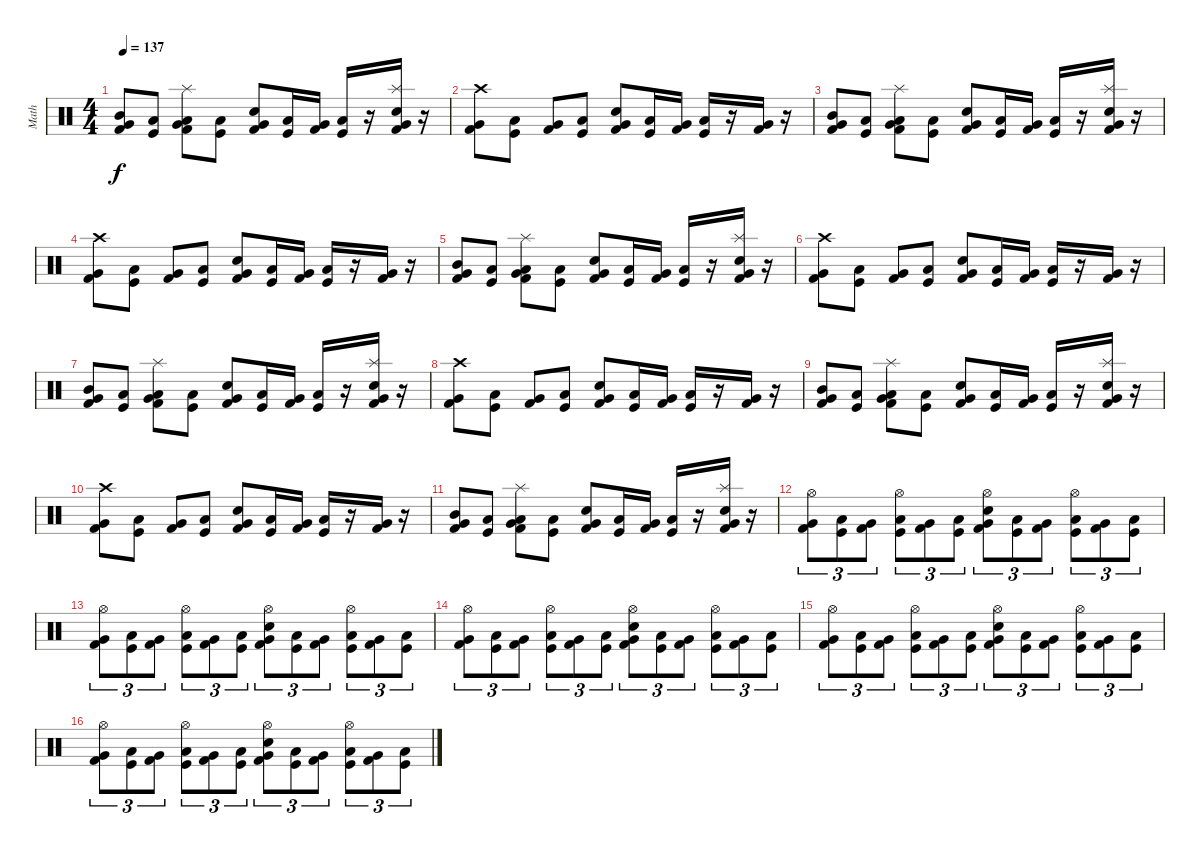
\track ("Math" "Math") {instrument percussion}
\staff {score}
\articulation defaults
\ts (4 4)
\tempo 137
\clef neutral
\ks c
("Mid Tom (hit)" "Very Low Tom (hit)" "Kick (hit) 2").8{dy f} ("Low Tom (hit)" "Kick (hit)").8 ("Low Tom (hit)" "Very Low Tom (hit)" "Kick (hit) 2" "Splash (hit)").8 ("Low Tom (hit)" "Kick (hit)").8 ("Electric Snare (hit)" "Very Low Tom (hit)" "Kick (hit) 2").8 ("Low Tom (hit)" "Kick (hit)").16 ("Very Low Tom (hit)" "Kick (hit) 2").16 ("Low Tom (hit)" "Kick (hit)").16 r.16 ("Electric Snare (hit)" "Very Low Tom (hit)" "Kick (hit) 2" "Splash (hit)").16 r.16 |
("Crash high (hit)" "Very Low Tom (hit)" "Kick (hit) 2").8 ("Low Tom (hit)" "Kick (hit)").8 ("Very Low Tom (hit)" "Kick (hit) 2").8 ("Low Tom (hit)" "Kick (hit)").8 ("Snare (hit) 2" "Very Low Tom (hit)" "Kick (hit) 2").8 ("Low Tom (hit)" "Kick (hit)").16 ("Very Low Tom (hit)" "Kick (hit) 2").16 ("Low Tom (hit)" "Kick (hit)").16 r.16 ("Very Low Tom (hit)" "Kick (hit) 2").16 r.16 |
("Mid Tom (hit)" "Very Low Tom (hit)" "Kick (hit) 2").8 ("Low Tom (hit)" "Kick (hit)").8 ("Low Tom (hit)" "Very Low Tom (hit)" "Kick (hit) 2" "Splash (hit)").8 ("Low Tom (hit)" "Kick (hit)").8 ("Electric Snare (hit)" "Very Low Tom (hit)" "Kick (hit) 2").8 ("Low Tom (hit)" "Kick (hit)").16 ("Very Low Tom (hit)" "Kick (hit) 2").16 ("Low Tom (hit)" "Kick (hit)").16 r.16 ("Electric Snare (hit)" "Very Low Tom (hit)" "Kick (hit) 2" "Splash (hit)").16 r.16 |
("Crash high (hit)" "Very Low Tom (hit)" "Kick (hit) 2").8 ("Low Tom (hit)" "Kick (hit)").8 ("Very Low Tom (hit)" "Kick (hit) 2").8 ("Low Tom (hit)" "Kick (hit)").8 ("Snare (hit) 2" "Very Low Tom (hit)" "Kick (hit) 2").8 ("Low Tom (hit)" "Kick (hit)").16 ("Very Low Tom (hit)" "Kick (hit) 2").16 ("Low Tom (hit)" "Kick (hit)").16 r.16 ("Very Low Tom (hit)" "Kick (hit) 2").16 r.16 |
("Mid Tom (hit)" "Very Low Tom (hit)" "Kick (hit) 2").8 ("Low Tom (hit)" "Kick (hit)").8 ("Low Tom (hit)" "Very Low Tom (hit)" "Kick (hit) 2" "Splash (hit)").8 ("Low Tom (hit)" "Kick (hit)").8 ("Electric Snare (hit)" "Very Low Tom (hit)" "Kick (hit) 2").8 ("Low Tom (hit)" "Kick (hit)").16 ("Very Low Tom (hit)" "Kick (hit) 2").16 ("Low Tom (hit)" "Kick (hit)").16 r.16 ("Electric Snare (hit)" "Very Low Tom (hit)" "Kick (hit) 2" "Splash (hit)").16 r.16 |
("Crash high (hit)" "Very Low Tom (hit)" "Kick (hit) 2").8 ("Low Tom (hit)" "Kick (hit)").8 ("Very Low Tom (hit)" "Kick (hit) 2").8 ("Low Tom (hit)" "Kick (hit)").8 ("Snare (hit) 2" "Very Low Tom (hit)" "Kick (hit) 2").8 ("Low Tom (hit)" "Kick (hit)").16 ("Very Low Tom (hit)" "Kick (hit) 2").16 ("Low Tom (hit)" "Kick (hit)").16 r.16 ("Very Low Tom (hit)" "Kick (hit) 2").16 r.16 |
("Mid Tom (hit)" "Very Low Tom (hit)" "Kick (hit) 2").8 ("Low Tom (hit)" "Kick (hit)").8 ("Low Tom (hit)" "Very Low Tom (hit)" "Kick (hit) 2" "Splash (hit)").8 ("Low Tom (hit)" "Kick (hit)").8 ("Electric Snare (hit)" "Very Low Tom (hit)" "Kick (hit) 2").8 ("Low Tom (hit)" "Kick (hit)").16 ("Very Low Tom (hit)" "Kick (hit) 2").16 ("Low Tom (hit)" "Kick (hit)").16 r.16 ("Electric Snare (hit)" "Very Low Tom (hit)" "Kick (hit) 2" "Splash (hit)").16 r.16 |
("Crash high (hit)" "Very Low Tom (hit)" "Kick (hit) 2").8 ("Low Tom (hit)" "Kick (hit)").8 ("Very Low Tom (hit)" "Kick (hit) 2").8 ("Low Tom (hit)" "Kick (hit)").8 ("Snare (hit) 2" "Very Low Tom (hit)" "Kick (hit) 2").8 ("Low Tom (hit)" "Kick (hit)").16 ("Very Low Tom (hit)" "Kick (hit) 2").16 ("Low Tom (hit)" "Kick (hit)").16 r.16 ("Very Low Tom (hit)" "Kick (hit) 2").16 r.16 |
("Mid Tom (hit)" "Very Low Tom (hit)" "Kick (hit) 2").8 ("Low Tom (hit)" "Kick (hit)").8 ("Low Tom (hit)" "Very Low Tom (hit)" "Kick (hit) 2" "Splash (hit)").8 ("Low Tom (hit)" "Kick (hit)").8 ("Electric Snare (hit)" "Very Low Tom (hit)" "Kick (hit) 2").8 ("Low Tom (hit)" "Kick (hit)").16 ("Very Low Tom (hit)" "Kick (hit) 2").16 ("Low Tom (hit)" "Kick (hit)").16 r.16 ("Electric Snare (hit)" "Very Low Tom (hit)" "Kick (hit) 2" "Splash (hit)").16 r.16 |
("Crash high (hit)" "Very Low Tom (hit)" "Kick (hit) 2").8 ("Low Tom (hit)" "Kick (hit)").8 ("Very Low Tom (hit)" "Kick (hit) 2").8 ("Low Tom (hit)" "Kick (hit)").8 ("Snare (hit) 2" "Very Low Tom (hit)" "Kick (hit) 2").8 ("Low Tom (hit)" "Kick (hit)").16 ("Very Low Tom (hit)" "Kick (hit) 2").16 ("Low Tom (hit)" "Kick (hit)").16 r.16 ("Very Low Tom (hit)" "Kick (hit) 2").16 r.16 |
("Mid Tom (hit)" "Very Low Tom (hit)" "Kick (hit) 2").8 ("Low Tom (hit)" "Kick (hit)").8 ("Low Tom (hit)" "Very Low Tom (hit)" "Kick (hit) 2" "Splash (hit)").8 ("Low Tom (hit)" "Kick (hit)").8 ("Electric Snare (hit)" "Very Low Tom (hit)" "Kick (hit) 2").8 ("Low Tom (hit)" "Kick (hit)").16 ("Very Low Tom (hit)" "Kick (hit) 2").16 ("Low Tom (hit)" "Kick (hit)").16 r.16 ("Electric Snare (hit)" "Very Low Tom (hit)" "Kick (hit) 2" "Splash (hit)").16 r.16 |
("Kick (hit) 2" "Very Low Tom (hit)" "Hi-Hat (open)").8{tu (3 2)} ("Kick (hit)" "Low Tom (hit)").8{tu (3 2)} ("Kick (hit) 2" "Very Low Tom (hit)").8{tu (3 2)} ("Kick (hit)" "Low Tom (hit)" "Hi-Hat (open)").8{tu (3 2)} ("Kick (hit) 2" "Very Low Tom (hit)").8{tu (3 2)} ("Kick (hit)" "Low Tom (hit)").8{tu (3 2)} ("Kick (hit) 2" "Very Low Tom (hit)" "Snare (hit) 2" "Hi-Hat (open)").8{tu (3 2)} ("Kick (hit)" "Low Tom (hit)").8{tu (3 2)} ("Kick (hit) 2" "Very Low Tom (hit)").8{tu (3 2)} ("Kick (hit)" "Low Tom (hit)" "Hi-Hat (open)").8{tu (3 2)} ("Kick (hit) 2" "Very Low Tom (hit)").8{tu (3 2)} ("Kick (hit)" "Low Tom (hit)").8{tu (3 2)} |
("Kick (hit) 2" "Very Low Tom (hit)" "Hi-Hat (open)").8{tu (3 2)} ("Kick (hit)" "Low Tom (hit)").8{tu (3 2)} ("Kick (hit) 2" "Very Low Tom (hit)").8{tu (3 2)} ("Kick (hit)" "Low Tom (hit)" "Hi-Hat (open)").8{tu (3 2)} ("Kick (hit) 2" "Very Low Tom (hit)").8{tu (3 2)} ("Kick (hit)" "Low Tom (hit)").8{tu (3 2)} ("Kick (hit) 2" "Very Low Tom (hit)" "Snare (hit) 2" "Hi-Hat (open)").8{tu (3 2)} ("Kick (hit)" "Low Tom (hit)").8{tu (3 2)} ("Kick (hit) 2" "Very Low Tom (hit)").8{tu (3 2)} ("Kick (hit)" "Low Tom (hit)" "Hi-Hat (open)").8{tu (3 2)} ("Kick (hit) 2" "Very Low Tom (hit)").8{tu (3 2)} ("Kick (hit)" "Low Tom (hit)").8{tu (3 2)} |
("Kick (hit) 2" "Very Low Tom (hit)" "Hi-Hat (open)").8{tu (3 2)} ("Kick (hit)" "Low Tom (hit)").8{tu (3 2)} ("Kick (hit) 2" "Very Low Tom (hit)").8{tu (3 2)} ("Kick (hit)" "Low Tom (hit)" "Hi-Hat (open)").8{tu (3 2)} ("Kick (hit) 2" "Very Low Tom (hit)").8{tu (3 2)} ("Kick (hit)" "Low Tom (hit)").8{tu (3 2)} ("Kick (hit) 2" "Very Low Tom (hit)" "Snare (hit) 2" "Hi-Hat (open)").8{tu (3 2)} ("Kick (hit)" "Low Tom (hit)").8{tu (3 2)} ("Kick (hit) 2" "Very Low Tom (hit)").8{tu (3 2)} ("Kick (hit)" "Low Tom (hit)" "Hi-Hat (open)").8{tu (3 2)} ("Kick (hit) 2" "Very Low Tom (hit)").8{tu (3 2)} ("Kick (hit)" "Low Tom (hit)").8{tu (3 2)} |
("Kick (hit) 2" "Very Low Tom (hit)" "Hi-Hat (open)").8{tu (3 2)} ("Kick (hit)" "Low Tom (hit)").8{tu (3 2)} ("Kick (hit) 2" "Very Low Tom (hit)").8{tu (3 2)} ("Kick (hit)" "Low Tom (hit)" "Hi-Hat (open)").8{tu (3 2)} ("Kick (hit) 2" "Very Low Tom (hit)").8{tu (3 2)} ("Kick (hit)" "Low Tom (hit)").8{tu (3 2)} ("Kick (hit) 2" "Very Low Tom (hit)" "Snare (hit) 2" "Hi-Hat (open)").8{tu (3 2)} ("Kick (hit)" "Low Tom (hit)").8{tu (3 2)} ("Kick (hit) 2" "Very Low Tom (hit)").8{tu (3 2)} ("Kick (hit)" "Low Tom (hit)" "Hi-Hat (open)").8{tu (3 2)} ("Kick (hit) 2" "Very Low Tom (hit)").8{tu (3 2)} ("Kick (hit)" "Low Tom (hit)").8{tu (3 2)} |
("Kick (hit) 2" "Very Low Tom (hit)" "Hi-Hat (open)").8{tu (3 2)} ("Kick (hit)" "Low Tom (hit)").8{tu (3 2)} ("Kick (hit) 2" "Very Low Tom (hit)").8{tu (3 2)} ("Kick (hit)" "Low Tom (hit)" "Hi-Hat (open)").8{tu (3 2)} ("Kick (hit) 2" "Very Low Tom (hit)").8{tu (3 2)} ("Kick (hit)" "Low Tom (hit)").8{tu (3 2)} ("Kick (hit) 2" "Very Low Tom (hit)" "Snare (hit) 2" "Hi-Hat (open)").8{tu (3 2)} ("Kick (hit)" "Low Tom (hit)").8{tu (3 2)} ("Kick (hit) 2" "Very Low Tom (hit)").8{tu (3 2)} ("Kick (hit)" "Low Tom (hit)" "Hi-Hat (open)").8{tu (3 2)} ("Kick (hit) 2" "Very Low Tom (hit)").8{tu (3 2)} ("Kick (hit)" "Low Tom (hit)").8{tu (3 2)}
